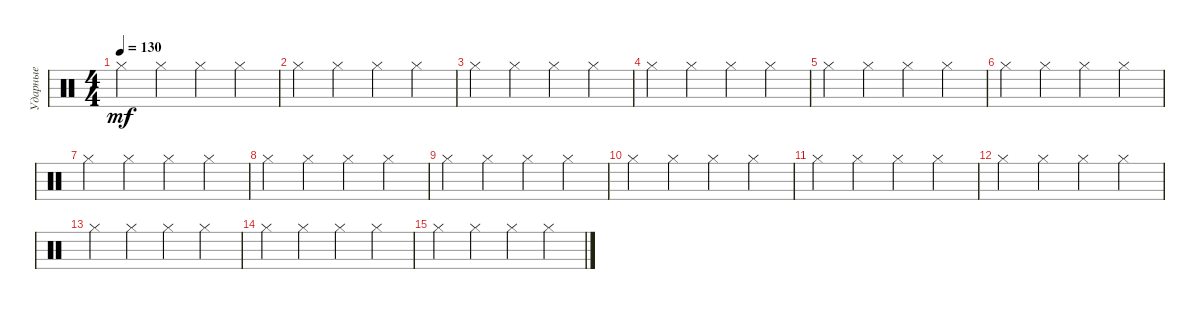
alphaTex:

\track ("Ударные" "Ударные") {instrument percussion}
\staff {score}
\articulation defaults
\ts (4 4)
\tempo 130
\clef neutral
\ks c "Hi-Hat (closed)".4{dy mf} "Hi-Hat (closed)".4 "Hi-Hat (closed)".4 "Hi-Hat (closed)".4
|
"Hi-Hat (closed)".4 "Hi-Hat (closed)".4 "Hi-Hat (closed)".4 "Hi-Hat (closed)".4 |
"Hi-Hat (closed)".4 "Hi-Hat (closed)".4 "Hi-Hat (closed)".4 "Hi-Hat (closed)".4 |
"Hi-Hat (closed)".4 "Hi-Hat (closed)".4 "Hi-Hat (closed)".4 "Hi-Hat (closed)".4 |
"Hi-Hat (closed)".4 "Hi-Hat (closed)".4 "Hi-Hat (closed)".4 "Hi-Hat (closed)".4 |
"Hi-Hat (closed)".4 "Hi-Hat (closed)".4 "Hi-Hat (closed)".4 "Hi-Hat (closed)".4 |
"Hi-Hat (closed)".4 "Hi-Hat (closed)".4 "Hi-Hat (closed)".4 "Hi-Hat (closed)".4 |
"Hi-Hat (closed)".4 "Hi-Hat (closed)".4 "Hi-Hat (closed)".4 "Hi-Hat (closed)".4 |
"Hi-Hat (closed)".4 "Hi-Hat (closed)".4 "Hi-Hat (closed)".4 "Hi-Hat (closed)".4 |
"Hi-Hat (closed)".4 "Hi-Hat (closed)".4 "Hi-Hat (closed)".4 "Hi-Hat (closed)".4 |
"Hi-Hat (closed)".4 "Hi-Hat (closed)".4 "Hi-Hat (closed)".4 "Hi-Hat (closed)".4 |
"Hi-Hat (closed)".4 "Hi-Hat (closed)".4 "Hi-Hat (closed)".4 "Hi-Hat (closed)".4 |
"Hi-Hat (closed)".4 "Hi-Hat (closed)".4 "Hi-Hat (closed)".4 "Hi-Hat (closed)".4 |
"Hi-Hat (closed)".4 "Hi-Hat (closed)".4 "Hi-Hat (closed)".4 "Hi-Hat (closed)".4 |
"Hi-Hat (closed)".4 "Hi-Hat (closed)".4 "Hi-Hat (closed)".4 "Hi-Hat (closed)".4
